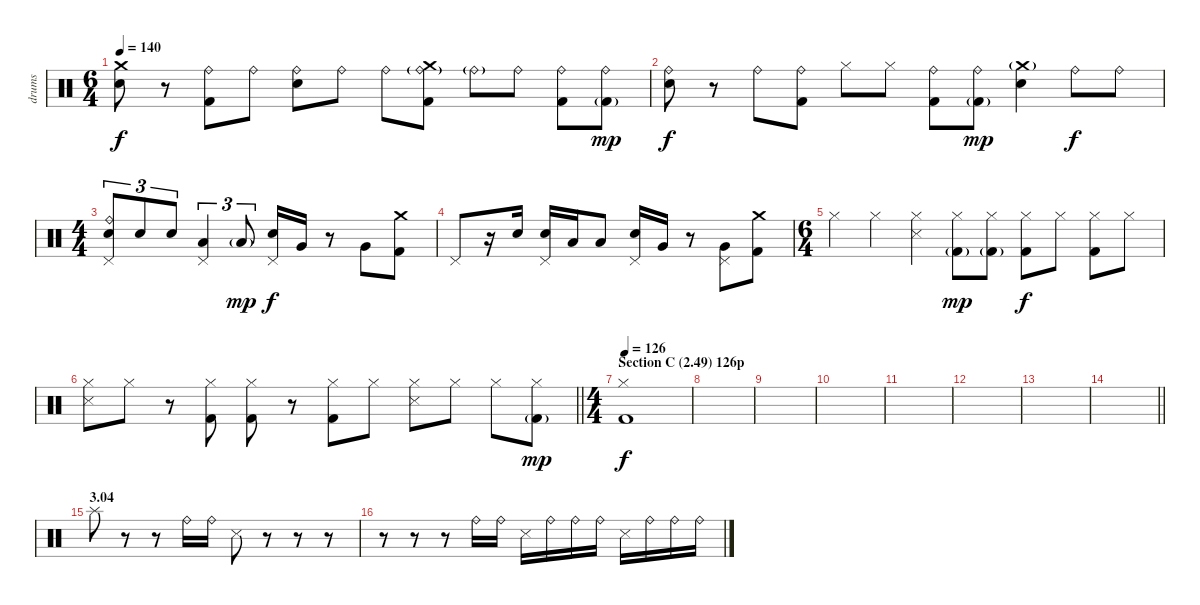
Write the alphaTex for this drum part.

\track ("drums" "drums") {instrument percussion}
\staff {score}
\articulation defaults
\ts (6 4)
\tempo 140
\clef neutral
\ks c
("Crash medium (hit)" "Electric Snare (hit)").8{dy f} r.8 ("Ride (bell)" "Kick (hit) 2").8 "Ride (bell)".8 ("Ride (bell)" "Electric Snare (hit)").8 "Ride (bell)".8 "Ride (bell)".8 ("Ride (bell)"{g} "Crash medium (hit)" "Kick (hit) 2").8 "Ride (bell)"{g}.8 "Ride (bell)".8 ("Ride (bell)" "Kick (hit) 2").8 ("Ride (bell)" "Kick (hit) 2"{g}).8{dy mp} |
("Ride (bell)" "Electric Snare (hit)").8{dy f} r.8 "Ride (bell)".8 ("Ride (bell)" "Kick (hit) 2").8 "Hi-Hat (closed)".8 "Hi-Hat (closed)".8 ("Ride (bell)" "Kick (hit) 2").8 ("Ride (bell)" "Kick (hit) 2"{g}).8{dy mp} ("Crash medium (hit)"{g} "Electric Snare (hit)").4 "Ride (bell)".8{dy f} "Ride (bell)".8 |
\ts (4 4)
("Ride (bell)" "Pedal Hi-Hat (hit)" "Electric Snare (hit)").8{tu (3 2)} "Electric Snare (hit)".8{tu (3 2)} "Electric Snare (hit)".8{tu (3 2)} ("Pedal Hi-Hat (hit)" "Low Tom (hit)").4{tu (3 2)} "Low Tom (hit)"{g}.8{tu (3 2) dy mp} ("Pedal Hi-Hat (hit)" "Electric Snare (hit)").16{dy f} "Very Low Tom (hit)".16 r.8 "Very Low Tom (hit)".8 ("Crash medium (hit)" "Kick (hit) 2").8 |
"Pedal Hi-Hat (hit)".8 r.16 "Electric Snare (hit)".16 ("Pedal Hi-Hat (hit)" "Electric Snare (hit)").16 "Low Tom (hit)".16 "Low Tom (hit)".8 ("Pedal Hi-Hat (hit)" "Electric Snare (hit)").16 "Very Low Tom (hit)".16 r.8 ("Pedal Hi-Hat (hit)" "Very Low Tom (hit)").8 ("Crash medium (hit)" "Kick (hit) 2").8 |
\ts (6 4)
"Hi-Hat (closed)".4 "Hi-Hat (closed)".4 ("Hi-Hat (closed)" "Snare (side stick) 3").4 ("Hi-Hat (closed)" "Kick (hit) 2"{g}).8{dy mp} ("Hi-Hat (closed)" "Kick (hit) 2"{g}).8 ("Hi-Hat (closed)" "Kick (hit) 2").8{dy f} "Hi-Hat (closed)".8 ("Hi-Hat (closed)" "Kick (hit) 2").8 "Hi-Hat (closed)".8 |
\barLineRight lightlight
("Hi-Hat (closed)" "Snare (side stick) 3").8 "Hi-Hat (closed)".8 r.8 ("Hi-Hat (closed)" "Kick (hit) 2").8 ("Hi-Hat (closed)" "Kick (hit) 2").8 r.8 ("Hi-Hat (closed)" "Kick (hit) 2").8 "Hi-Hat (closed)".8 ("Hi-Hat (closed)" "Snare (side stick) 3").8 "Hi-Hat (closed)".8 "Hi-Hat (closed)".8 ("Hi-Hat (closed)" "Kick (hit) 2"{g}).8{dy mp} |
\ts (4 4)
\section ("" "Section C (2.49) 126p")
\tempo 126
("Hi-Hat (closed)" "Kick (hit) 2").1{dy f} |
|
|
|
|
|
|
\barLineRight lightlight
|
\section ("" "3.04")
"Splash (hit)".8 r.8 r.8 "Ride (bell)".16 "Ride (bell)".16 "Snare (side stick) 3".8 r.8 r.8 r.8 |
r.8 r.8 r.8 "Ride (bell)".16 "Ride (bell)".16 "Snare (side stick) 3".16 "Ride (bell)".16 "Ride (bell)".16 "Ride (bell)".16 "Snare (side stick) 3".16 "Ride (bell)".16 "Ride (bell)".16 "Ride (bell)".16
